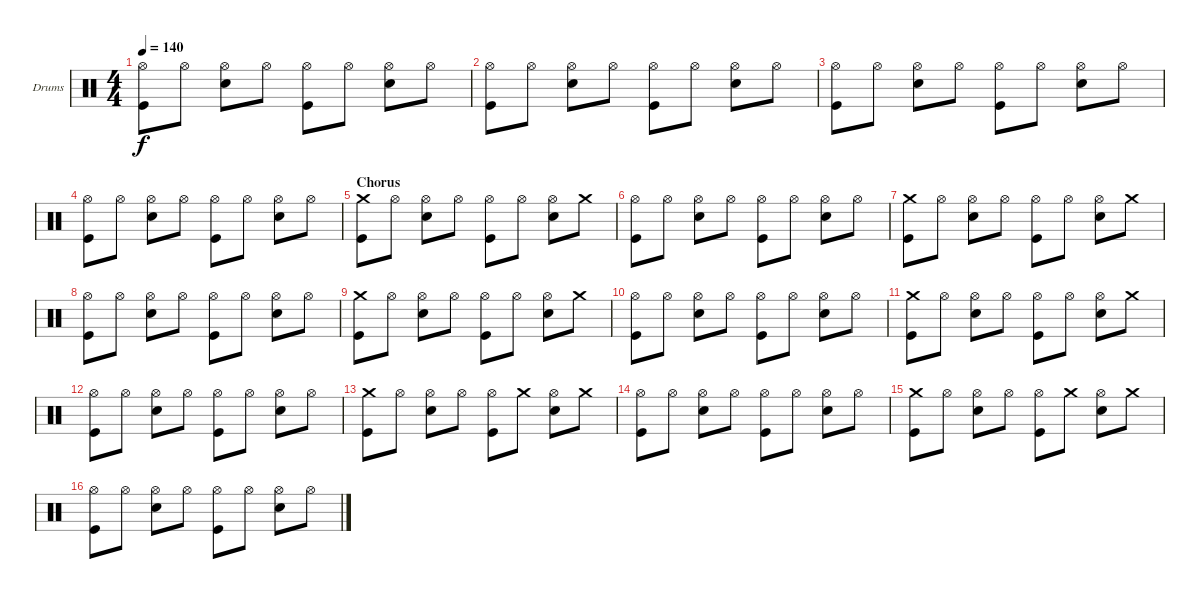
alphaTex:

\bracketExtendMode groupsimilarinstruments
\firstSystemTrackNameOrientation horizontal
\otherSystemsTrackNameOrientation horizontal
\track ("Drumkit" "Drums") {instrument percussion}
\staff {score}
\articulation defaults
\ts (4 4)
\tempo 140
\clef neutral
\ks c
("Hi-Hat (open)" "Kick (hit)").8{dy f} "Hi-Hat (open)".8 ("Hi-Hat (open)" "Snare (hit) 2").8 "Hi-Hat (open)".8 ("Hi-Hat (open)" "Kick (hit)").8 "Hi-Hat (open)".8 ("Hi-Hat (open)" "Snare (hit) 2").8 "Hi-Hat (open)".8 |
("Hi-Hat (open)" "Kick (hit)").8 "Hi-Hat (open)".8 ("Hi-Hat (open)" "Snare (hit) 2").8 "Hi-Hat (open)".8 ("Hi-Hat (open)" "Kick (hit)").8 "Hi-Hat (open)".8 ("Hi-Hat (open)" "Snare (hit) 2").8 "Hi-Hat (open)".8 |
("Hi-Hat (open)" "Kick (hit)").8 "Hi-Hat (open)".8 ("Hi-Hat (open)" "Snare (hit) 2").8 "Hi-Hat (open)".8 ("Hi-Hat (open)" "Kick (hit)").8 "Hi-Hat (open)".8 ("Hi-Hat (open)" "Snare (hit) 2").8 "Hi-Hat (open)".8 |
("Hi-Hat (open)" "Kick (hit)").8 "Hi-Hat (open)".8 ("Hi-Hat (open)" "Snare (hit) 2").8 "Hi-Hat (open)".8 ("Hi-Hat (open)" "Kick (hit)").8 "Hi-Hat (open)".8 ("Hi-Hat (open)" "Snare (hit) 2").8 "Hi-Hat (open)".8 |
\section ("" "Chorus")
("Crash medium (hit)" "Kick (hit)").8 "Hi-Hat (open)".8 ("Hi-Hat (open)" "Snare (hit) 2").8 "Hi-Hat (open)".8 ("Hi-Hat (open)" "Kick (hit)").8 "Hi-Hat (open)".8 ("Hi-Hat (open)" "Snare (hit) 2").8 "Crash medium (hit)".8 |
("Hi-Hat (open)" "Kick (hit)").8 "Hi-Hat (open)".8 ("Hi-Hat (open)" "Snare (hit) 2").8 "Hi-Hat (open)".8 ("Hi-Hat (open)" "Kick (hit)").8 "Hi-Hat (open)".8 ("Hi-Hat (open)" "Snare (hit) 2").8 "Hi-Hat (open)".8 |
("Crash medium (hit)" "Kick (hit)").8 "Hi-Hat (open)".8 ("Hi-Hat (open)" "Snare (hit) 2").8 "Hi-Hat (open)".8 ("Hi-Hat (open)" "Kick (hit)").8 "Hi-Hat (open)".8 ("Hi-Hat (open)" "Snare (hit) 2").8 "Crash medium (hit)".8 |
("Hi-Hat (open)" "Kick (hit)").8 "Hi-Hat (open)".8 ("Hi-Hat (open)" "Snare (hit) 2").8 "Hi-Hat (open)".8 ("Hi-Hat (open)" "Kick (hit)").8 "Hi-Hat (open)".8 ("Hi-Hat (open)" "Snare (hit) 2").8 "Hi-Hat (open)".8 |
("Crash medium (hit)" "Kick (hit)").8 "Hi-Hat (open)".8 ("Hi-Hat (open)" "Snare (hit) 2").8 "Hi-Hat (open)".8 ("Hi-Hat (open)" "Kick (hit)").8 "Hi-Hat (open)".8 ("Hi-Hat (open)" "Snare (hit) 2").8 "Crash medium (hit)".8 |
("Hi-Hat (open)" "Kick (hit)").8 "Hi-Hat (open)".8 ("Hi-Hat (open)" "Snare (hit) 2").8 "Hi-Hat (open)".8 ("Hi-Hat (open)" "Kick (hit)").8 "Hi-Hat (open)".8 ("Hi-Hat (open)" "Snare (hit) 2").8 "Hi-Hat (open)".8 |
("Crash medium (hit)" "Kick (hit)").8 "Hi-Hat (open)".8 ("Hi-Hat (open)" "Snare (hit) 2").8 "Hi-Hat (open)".8 ("Hi-Hat (open)" "Kick (hit)").8 "Hi-Hat (open)".8 ("Hi-Hat (open)" "Snare (hit) 2").8 "Crash medium (hit)".8 |
("Hi-Hat (open)" "Kick (hit)").8 "Hi-Hat (open)".8 ("Hi-Hat (open)" "Snare (hit) 2").8 "Hi-Hat (open)".8 ("Hi-Hat (open)" "Kick (hit)").8 "Hi-Hat (open)".8 ("Hi-Hat (open)" "Snare (hit) 2").8 "Hi-Hat (open)".8 |
("Crash medium (hit)" "Kick (hit)").8 "Hi-Hat (open)".8 ("Hi-Hat (open)" "Snare (hit) 2").8 "Hi-Hat (open)".8 ("Hi-Hat (open)" "Kick (hit)").8 "Crash medium (hit)".8 ("Hi-Hat (open)" "Snare (hit) 2").8 "Crash medium (hit)".8 |
("Hi-Hat (open)" "Kick (hit)").8 "Hi-Hat (open)".8 ("Hi-Hat (open)" "Snare (hit) 2").8 "Hi-Hat (open)".8 ("Hi-Hat (open)" "Kick (hit)").8 "Hi-Hat (open)".8 ("Hi-Hat (open)" "Snare (hit) 2").8 "Hi-Hat (open)".8 |
("Crash medium (hit)" "Kick (hit)").8 "Hi-Hat (open)".8 ("Hi-Hat (open)" "Snare (hit) 2").8 "Hi-Hat (open)".8 ("Hi-Hat (open)" "Kick (hit)").8 "Crash medium (hit)".8 ("Hi-Hat (open)" "Snare (hit) 2").8 "Crash medium (hit)".8 |
("Hi-Hat (open)" "Kick (hit)").8 "Hi-Hat (open)".8 ("Hi-Hat (open)" "Snare (hit) 2").8 "Hi-Hat (open)".8 ("Hi-Hat (open)" "Kick (hit)").8 "Hi-Hat (open)".8 ("Hi-Hat (open)" "Snare (hit) 2").8 "Hi-Hat (open)".8
